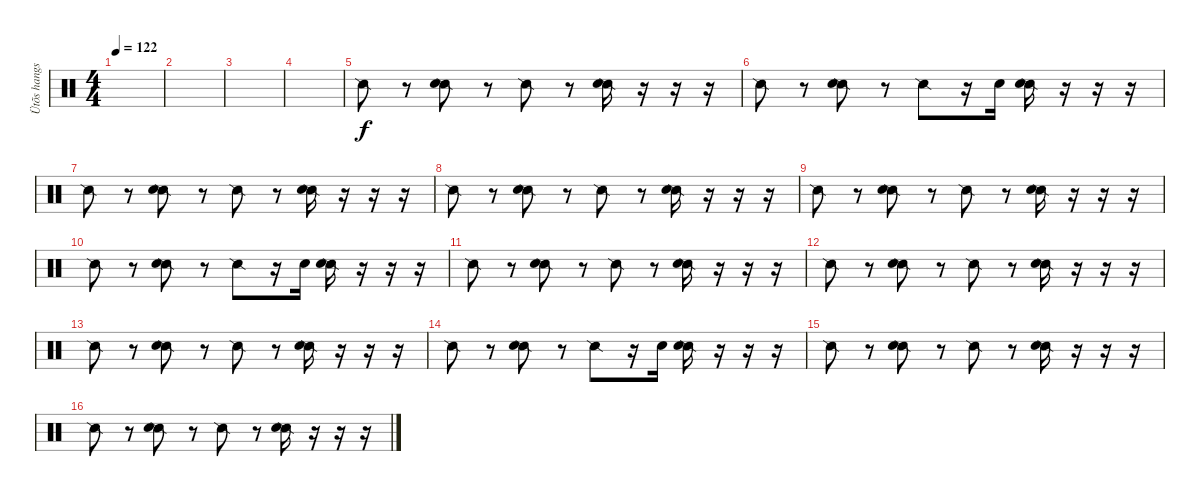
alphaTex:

\track ("Ütõs hangszer" "Ütõs hangs") {instrument percussion}
\staff {score}
\articulation defaults
\ts (4 4)
\tempo 122
\clef neutral
\ks c
|
|
|
|
"Snare (side stick) 2".8 r.8 ("Snare (side stick) 2" "Hand Clap (hit)").8 r.8 "Snare (side stick) 2".8 r.8 ("Snare (side stick) 2" "Hand Clap (hit)").16 r.16 r.16 r.16 |
"Snare (side stick) 2".8 r.8 ("Snare (side stick) 2" "Hand Clap (hit)").8 r.8 "Snare (side stick) 2".8 r.16 "Hand Clap (hit)".16 ("Snare (side stick) 2" "Hand Clap (hit)").16 r.16 r.16 r.16 |
"Snare (side stick) 2".8 r.8 ("Snare (side stick) 2" "Hand Clap (hit)").8 r.8 "Snare (side stick) 2".8 r.8 ("Snare (side stick) 2" "Hand Clap (hit)").16 r.16 r.16 r.16 |
"Snare (side stick) 2".8 r.8 ("Snare (side stick) 2" "Hand Clap (hit)").8 r.8 "Snare (side stick) 2".8 r.8 ("Snare (side stick) 2" "Hand Clap (hit)").16 r.16 r.16 r.16 |
"Snare (side stick) 2".8 r.8 ("Snare (side stick) 2" "Hand Clap (hit)").8 r.8 "Snare (side stick) 2".8 r.8 ("Snare (side stick) 2" "Hand Clap (hit)").16 r.16 r.16 r.16 |
"Snare (side stick) 2".8 r.8 ("Snare (side stick) 2" "Hand Clap (hit)").8 r.8 "Snare (side stick) 2".8 r.16 "Hand Clap (hit)".16 ("Snare (side stick) 2" "Hand Clap (hit)").16 r.16 r.16 r.16 |
"Snare (side stick) 2".8 r.8 ("Snare (side stick) 2" "Hand Clap (hit)").8 r.8 "Snare (side stick) 2".8 r.8 ("Snare (side stick) 2" "Hand Clap (hit)").16 r.16 r.16 r.16 |
"Snare (side stick) 2".8 r.8 ("Snare (side stick) 2" "Hand Clap (hit)").8 r.8 "Snare (side stick) 2".8 r.8 ("Snare (side stick) 2" "Hand Clap (hit)").16 r.16 r.16 r.16 |
"Snare (side stick) 2".8 r.8 ("Snare (side stick) 2" "Hand Clap (hit)").8 r.8 "Snare (side stick) 2".8 r.8 ("Snare (side stick) 2" "Hand Clap (hit)").16 r.16 r.16 r.16 |
"Snare (side stick) 2".8 r.8 ("Snare (side stick) 2" "Hand Clap (hit)").8 r.8 "Snare (side stick) 2".8 r.16 "Hand Clap (hit)".16 ("Snare (side stick) 2" "Hand Clap (hit)").16 r.16 r.16 r.16 |
"Snare (side stick) 2".8 r.8 ("Snare (side stick) 2" "Hand Clap (hit)").8 r.8 "Snare (side stick) 2".8 r.8 ("Snare (side stick) 2" "Hand Clap (hit)").16 r.16 r.16 r.16 |
"Snare (side stick) 2".8 r.8 ("Snare (side stick) 2" "Hand Clap (hit)").8 r.8 "Snare (side stick) 2".8 r.8 ("Snare (side stick) 2" "Hand Clap (hit)").16 r.16 r.16 r.16
